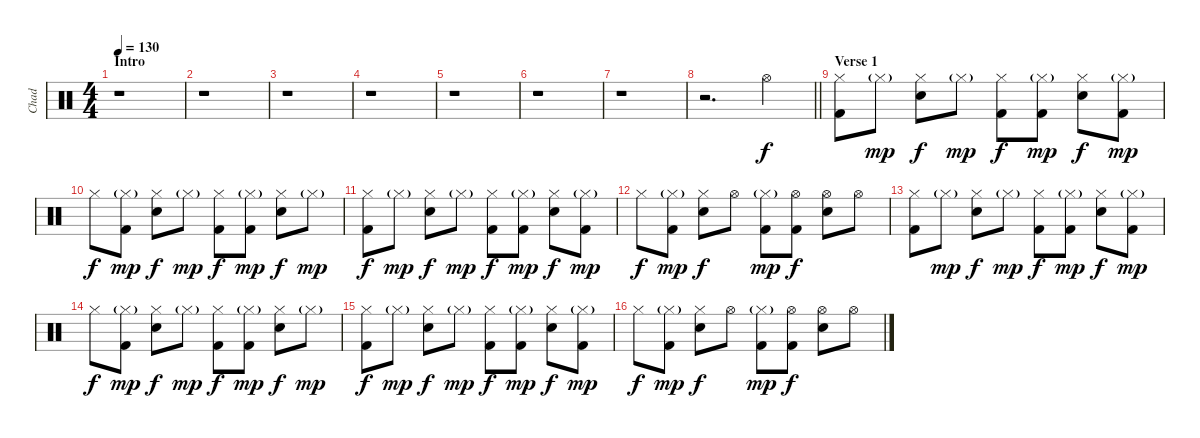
\track ("Chad" "Chad") {instrument percussion}
\staff {score}
\articulation defaults
\ts (4 4)
\section ("" "Intro")
\tempo 130
\clef neutral
\ks c
r.1{dy f} |
r.1 |
r.1 |
r.1 |
r.1 |
r.1 |
r.1 |
\barLineRight lightlight
r.2{d} "Hi-Hat (open)".4 |
\section ("" "Verse 1")
("Hi-Hat (closed)" "Kick (hit) 2").8 "Hi-Hat (closed)"{g}.8{dy mp} ("Hi-Hat (closed)" "Snare (hit) 2").8{dy f} "Hi-Hat (closed)"{g}.8{dy mp} ("Hi-Hat (closed)" "Kick (hit) 2").8{dy f} ("Hi-Hat (closed)"{g} "Kick (hit) 2").8{dy mp} ("Hi-Hat (closed)" "Snare (hit) 2").8{dy f} ("Hi-Hat (closed)"{g} "Kick (hit) 2").8{dy mp} |
"Hi-Hat (closed)".8{dy f} ("Hi-Hat (closed)"{g} "Kick (hit) 2").8{dy mp} ("Hi-Hat (closed)" "Snare (hit) 2").8{dy f} "Hi-Hat (closed)"{g}.8{dy mp} ("Hi-Hat (closed)" "Kick (hit) 2").8{dy f} ("Hi-Hat (closed)"{g} "Kick (hit) 2").8{dy mp} ("Hi-Hat (closed)" "Snare (hit) 2").8{dy f} "Hi-Hat (closed)"{g}.8{dy mp} |
("Hi-Hat (closed)" "Kick (hit) 2").8{dy f} "Hi-Hat (closed)"{g}.8{dy mp} ("Hi-Hat (closed)" "Snare (hit) 2").8{dy f} "Hi-Hat (closed)"{g}.8{dy mp} ("Hi-Hat (closed)" "Kick (hit) 2").8{dy f} ("Hi-Hat (closed)"{g} "Kick (hit) 2").8{dy mp} ("Hi-Hat (closed)" "Snare (hit) 2").8{dy f} ("Hi-Hat (closed)"{g} "Kick (hit) 2").8{dy mp} |
"Hi-Hat (closed)".8{dy f} ("Hi-Hat (closed)"{g} "Kick (hit) 2").8{dy mp} ("Hi-Hat (closed)" "Snare (hit) 2").8{dy f} "Hi-Hat (open)".8 ("Hi-Hat (closed)"{g} "Kick (hit) 2").8{dy mp} ("Hi-Hat (open)" "Kick (hit) 2").8{dy f} ("Hi-Hat (open)" "Snare (hit) 2").8 "Hi-Hat (open)".8 |
("Hi-Hat (closed)" "Kick (hit) 2").8 "Hi-Hat (closed)"{g}.8{dy mp} ("Hi-Hat (closed)" "Snare (hit) 2").8{dy f} "Hi-Hat (closed)"{g}.8{dy mp} ("Hi-Hat (closed)" "Kick (hit) 2").8{dy f} ("Hi-Hat (closed)"{g} "Kick (hit) 2").8{dy mp} ("Hi-Hat (closed)" "Snare (hit) 2").8{dy f} ("Hi-Hat (closed)"{g} "Kick (hit) 2").8{dy mp} |
"Hi-Hat (closed)".8{dy f} ("Hi-Hat (closed)"{g} "Kick (hit) 2").8{dy mp} ("Hi-Hat (closed)" "Snare (hit) 2").8{dy f} "Hi-Hat (closed)"{g}.8{dy mp} ("Hi-Hat (closed)" "Kick (hit) 2").8{dy f} ("Hi-Hat (closed)"{g} "Kick (hit) 2").8{dy mp} ("Hi-Hat (closed)" "Snare (hit) 2").8{dy f} "Hi-Hat (closed)"{g}.8{dy mp} |
("Hi-Hat (closed)" "Kick (hit) 2").8{dy f} "Hi-Hat (closed)"{g}.8{dy mp} ("Hi-Hat (closed)" "Snare (hit) 2").8{dy f} "Hi-Hat (closed)"{g}.8{dy mp} ("Hi-Hat (closed)" "Kick (hit) 2").8{dy f} ("Hi-Hat (closed)"{g} "Kick (hit) 2").8{dy mp} ("Hi-Hat (closed)" "Snare (hit) 2").8{dy f} ("Hi-Hat (closed)"{g} "Kick (hit) 2").8{dy mp} |
"Hi-Hat (closed)".8{dy f} ("Hi-Hat (closed)"{g} "Kick (hit) 2").8{dy mp} ("Hi-Hat (closed)" "Snare (hit) 2").8{dy f} "Hi-Hat (open)".8 ("Hi-Hat (closed)"{g} "Kick (hit) 2").8{dy mp} ("Hi-Hat (open)" "Kick (hit) 2").8{dy f} ("Hi-Hat (open)" "Snare (hit) 2").8 "Hi-Hat (open)".8
